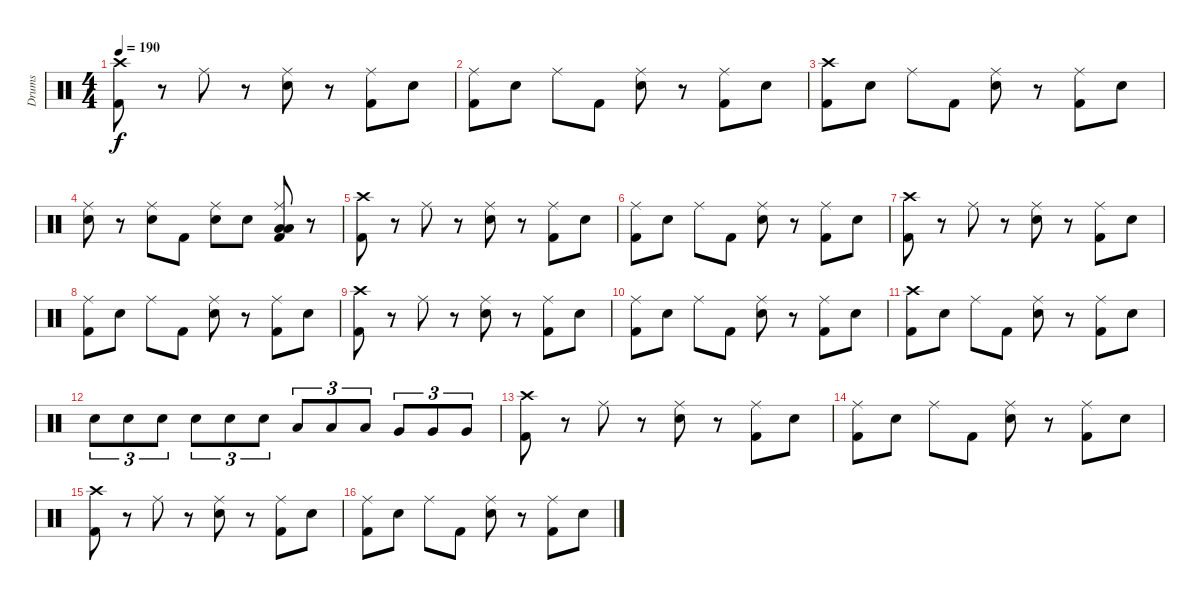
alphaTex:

\track ("Drums" "Drums") {instrument percussion}
\staff {score}
\articulation defaults
\ts (4 4)
\tempo 190
\clef neutral
\ks c
("Crash high (hit)" "Kick (hit) 2").8{dy f} r.8 "Ride (middle)".8 r.8 ("Ride (middle)" "Electric Snare (hit)").8 r.8 ("Ride (middle)" "Kick (hit) 2").8 "Electric Snare (hit)".8 |
("Ride (middle)" "Kick (hit) 2").8 "Electric Snare (hit)".8 "Ride (middle)".8 "Kick (hit) 2".8 ("Ride (middle)" "Electric Snare (hit)").8 r.8 ("Ride (middle)" "Kick (hit) 2").8 "Electric Snare (hit)".8 |
("Crash high (hit)" "Kick (hit) 2").8 "Electric Snare (hit)".8 "Ride (middle)".8 "Kick (hit) 2".8 ("Ride (middle)" "Electric Snare (hit)").8 r.8 ("Ride (middle)" "Kick (hit) 2").8 "Electric Snare (hit)".8 |
("Ride (middle)" "Electric Snare (hit)").8 r.8 ("Ride (middle)" "Electric Snare (hit)").8 "Kick (hit) 2".8 ("Ride (middle)" "Electric Snare (hit)").8 "Electric Snare (hit)".8 ("Ride (middle)" "Low Floor Tom (hit)" "Low Floor Tom (hit)" "Kick (hit) 2").8 r.8 |
("Crash high (hit)" "Kick (hit) 2").8 r.8 "Ride (middle)".8 r.8 ("Ride (middle)" "Electric Snare (hit)").8 r.8 ("Ride (middle)" "Kick (hit) 2").8 "Electric Snare (hit)".8 |
("Ride (middle)" "Kick (hit) 2").8 "Electric Snare (hit)".8 "Ride (middle)".8 "Kick (hit) 2".8 ("Ride (middle)" "Electric Snare (hit)").8 r.8 ("Ride (middle)" "Kick (hit) 2").8 "Electric Snare (hit)".8 |
("Crash high (hit)" "Kick (hit) 2").8 r.8 "Ride (middle)".8 r.8 ("Ride (middle)" "Electric Snare (hit)").8 r.8 ("Ride (middle)" "Kick (hit) 2").8 "Electric Snare (hit)".8 |
("Ride (middle)" "Kick (hit) 2").8 "Electric Snare (hit)".8 "Ride (middle)".8 "Kick (hit) 2".8 ("Ride (middle)" "Electric Snare (hit)").8 r.8 ("Ride (middle)" "Kick (hit) 2").8 "Electric Snare (hit)".8 |
("Crash high (hit)" "Kick (hit) 2").8 r.8 "Ride (middle)".8 r.8 ("Ride (middle)" "Electric Snare (hit)").8 r.8 ("Ride (middle)" "Kick (hit) 2").8 "Electric Snare (hit)".8 |
("Ride (middle)" "Kick (hit) 2").8 "Electric Snare (hit)".8 "Ride (middle)".8 "Kick (hit) 2".8 ("Ride (middle)" "Electric Snare (hit)").8 r.8 ("Ride (middle)" "Kick (hit) 2").8 "Electric Snare (hit)".8 |
("Crash high (hit)" "Kick (hit) 2").8 "Electric Snare (hit)".8 "Ride (middle)".8 "Kick (hit) 2".8 ("Ride (middle)" "Electric Snare (hit)").8 r.8 ("Ride (middle)" "Kick (hit) 2").8 "Electric Snare (hit)".8 |
"Electric Snare (hit)".8{tu (3 2)} "Electric Snare (hit)".8{tu (3 2)} "Electric Snare (hit)".8{tu (3 2)} "Electric Snare (hit)".8{tu (3 2)} "Electric Snare (hit)".8{tu (3 2)} "Electric Snare (hit)".8{tu (3 2)} "Low Tom (hit)".8{tu (3 2)} "Low Tom (hit)".8{tu (3 2)} "Low Tom (hit)".8{tu (3 2)} "Very Low Tom (hit)".8{tu (3 2)} "Very Low Tom (hit)".8{tu (3 2)} "Very Low Tom (hit)".8{tu (3 2)} |
("Crash high (hit)" "Kick (hit) 2").8 r.8 "Ride (middle)".8 r.8 ("Ride (middle)" "Electric Snare (hit)").8 r.8 ("Ride (middle)" "Kick (hit) 2").8 "Electric Snare (hit)".8 |
("Ride (middle)" "Kick (hit) 2").8 "Electric Snare (hit)".8 "Ride (middle)".8 "Kick (hit) 2".8 ("Ride (middle)" "Electric Snare (hit)").8 r.8 ("Ride (middle)" "Kick (hit) 2").8 "Electric Snare (hit)".8 |
("Crash high (hit)" "Kick (hit) 2").8 r.8 "Ride (middle)".8 r.8 ("Ride (middle)" "Electric Snare (hit)").8 r.8 ("Ride (middle)" "Kick (hit) 2").8 "Electric Snare (hit)".8 |
("Ride (middle)" "Kick (hit) 2").8 "Electric Snare (hit)".8 "Ride (middle)".8 "Kick (hit) 2".8 ("Ride (middle)" "Electric Snare (hit)").8 r.8 ("Ride (middle)" "Kick (hit) 2").8 "Electric Snare (hit)".8
